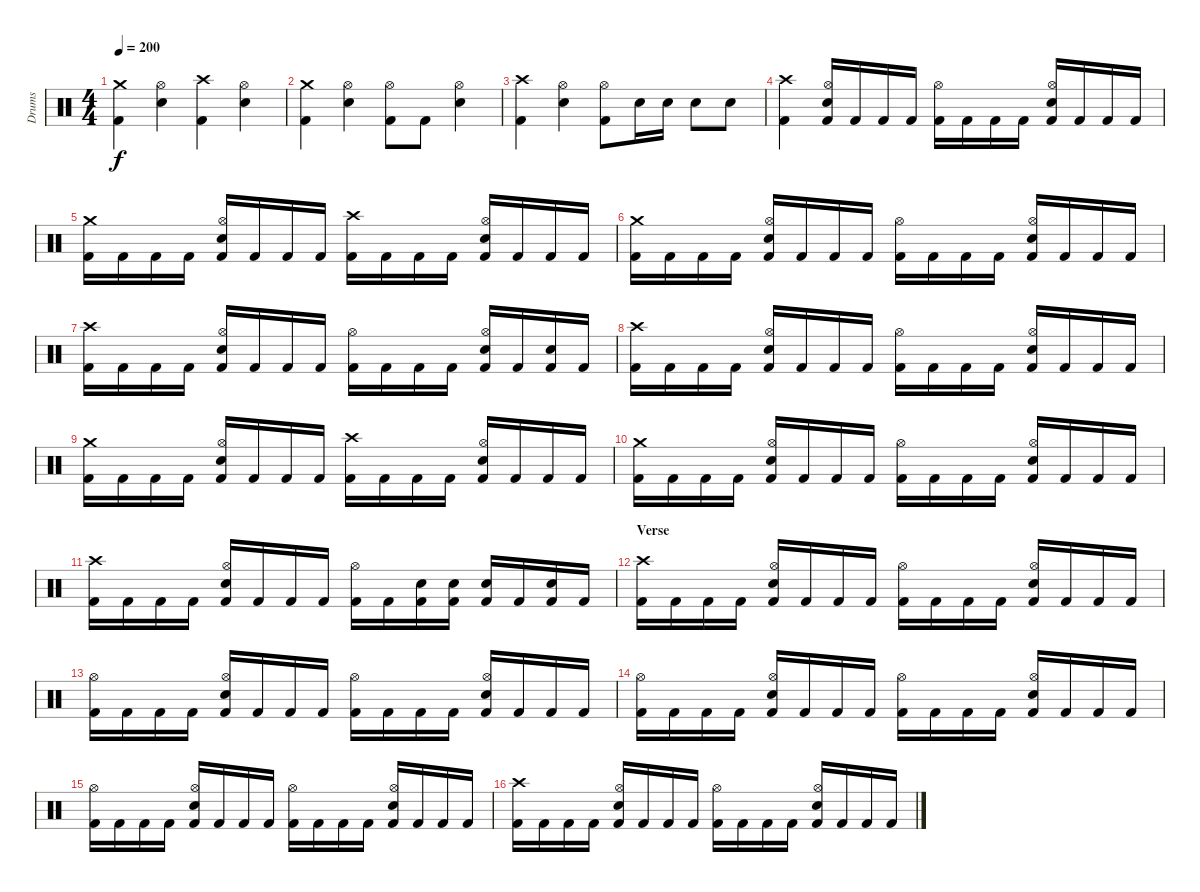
\track ("Drums" "Drums") {instrument percussion}
\staff {score}
\articulation defaults
\ts (4 4)
\tempo 200
\clef neutral
\ks c
("Crash medium (hit)" "Kick (hit) 2").4{dy f} ("Hi-Hat (open)" "Electric Snare (hit)").4 ("Crash high (hit)" "Kick (hit) 2").4 ("Hi-Hat (open)" "Electric Snare (hit)").4 |
("Crash medium (hit)" "Kick (hit) 2").4 ("Hi-Hat (open)" "Electric Snare (hit)").4 ("Hi-Hat (open)" "Kick (hit) 2").8 "Kick (hit) 2".8 ("Hi-Hat (open)" "Electric Snare (hit)").4 |
("Crash high (hit)" "Kick (hit) 2").4 ("Hi-Hat (open)" "Electric Snare (hit)").4 ("Hi-Hat (open)" "Kick (hit) 2").8 "Electric Snare (hit)".16 "Electric Snare (hit)".16 "Electric Snare (hit)".8 "Electric Snare (hit)".8 |
("Crash high (hit)" "Kick (hit) 2").4 ("Hi-Hat (open)" "Electric Snare (hit)" "Kick (hit) 2").16 "Kick (hit) 2".16 "Kick (hit) 2".16 "Kick (hit) 2".16 ("Hi-Hat (open)" "Kick (hit) 2").16 "Kick (hit) 2".16 "Kick (hit) 2".16 "Kick (hit) 2".16 ("Hi-Hat (open)" "Electric Snare (hit)" "Kick (hit) 2").16 "Kick (hit) 2".16 "Kick (hit) 2".16 "Kick (hit) 2".16 |
("Crash medium (hit)" "Kick (hit) 2").16 "Kick (hit) 2".16 "Kick (hit) 2".16 "Kick (hit) 2".16 ("Hi-Hat (open)" "Electric Snare (hit)" "Kick (hit) 2").16 "Kick (hit) 2".16 "Kick (hit) 2".16 "Kick (hit) 2".16 ("Crash high (hit)" "Kick (hit) 2").16 "Kick (hit) 2".16 "Kick (hit) 2".16 "Kick (hit) 2".16 ("Hi-Hat (open)" "Electric Snare (hit)" "Kick (hit) 2").16 "Kick (hit) 2".16 "Kick (hit) 2".16 "Kick (hit) 2".16 |
("Crash medium (hit)" "Kick (hit) 2").16 "Kick (hit) 2".16 "Kick (hit) 2".16 "Kick (hit) 2".16 ("Hi-Hat (open)" "Electric Snare (hit)" "Kick (hit) 2").16 "Kick (hit) 2".16 "Kick (hit) 2".16 "Kick (hit) 2".16 ("Hi-Hat (open)" "Kick (hit) 2").16 "Kick (hit) 2".16 "Kick (hit) 2".16 "Kick (hit) 2".16 ("Hi-Hat (open)" "Electric Snare (hit)" "Kick (hit) 2").16 "Kick (hit) 2".16 "Kick (hit) 2".16 "Kick (hit) 2".16 |
("Crash high (hit)" "Kick (hit) 2").16 "Kick (hit) 2".16 "Kick (hit) 2".16 "Kick (hit) 2".16 ("Hi-Hat (open)" "Electric Snare (hit)" "Kick (hit) 2").16 "Kick (hit) 2".16 "Kick (hit) 2".16 "Kick (hit) 2".16 ("Hi-Hat (open)" "Kick (hit) 2").16 "Kick (hit) 2".16 "Kick (hit) 2".16 "Kick (hit) 2".16 ("Hi-Hat (open)" "Electric Snare (hit)" "Kick (hit) 2").16 "Kick (hit) 2".16 ("Electric Snare (hit)" "Kick (hit) 2").16 "Kick (hit) 2".16 |
("Crash high (hit)" "Kick (hit) 2").16 "Kick (hit) 2".16 "Kick (hit) 2".16 "Kick (hit) 2".16 ("Hi-Hat (open)" "Electric Snare (hit)" "Kick (hit) 2").16 "Kick (hit) 2".16 "Kick (hit) 2".16 "Kick (hit) 2".16 ("Hi-Hat (open)" "Kick (hit) 2").16 "Kick (hit) 2".16 "Kick (hit) 2".16 "Kick (hit) 2".16 ("Hi-Hat (open)" "Electric Snare (hit)" "Kick (hit) 2").16 "Kick (hit) 2".16 "Kick (hit) 2".16 "Kick (hit) 2".16 |
("Crash medium (hit)" "Kick (hit) 2").16 "Kick (hit) 2".16 "Kick (hit) 2".16 "Kick (hit) 2".16 ("Hi-Hat (open)" "Electric Snare (hit)" "Kick (hit) 2").16 "Kick (hit) 2".16 "Kick (hit) 2".16 "Kick (hit) 2".16 ("Crash high (hit)" "Kick (hit) 2").16 "Kick (hit) 2".16 "Kick (hit) 2".16 "Kick (hit) 2".16 ("Hi-Hat (open)" "Electric Snare (hit)" "Kick (hit) 2").16 "Kick (hit) 2".16 "Kick (hit) 2".16 "Kick (hit) 2".16 |
("Crash medium (hit)" "Kick (hit) 2").16 "Kick (hit) 2".16 "Kick (hit) 2".16 "Kick (hit) 2".16 ("Hi-Hat (open)" "Electric Snare (hit)" "Kick (hit) 2").16 "Kick (hit) 2".16 "Kick (hit) 2".16 "Kick (hit) 2".16 ("Hi-Hat (open)" "Kick (hit) 2").16 "Kick (hit) 2".16 "Kick (hit) 2".16 "Kick (hit) 2".16 ("Hi-Hat (open)" "Electric Snare (hit)" "Kick (hit) 2").16 "Kick (hit) 2".16 "Kick (hit) 2".16 "Kick (hit) 2".16 |
("Crash high (hit)" "Kick (hit) 2").16 "Kick (hit) 2".16 "Kick (hit) 2".16 "Kick (hit) 2".16 ("Hi-Hat (open)" "Electric Snare (hit)" "Kick (hit) 2").16 "Kick (hit) 2".16 "Kick (hit) 2".16 "Kick (hit) 2".16 ("Hi-Hat (open)" "Kick (hit) 2").16 "Kick (hit) 2".16 ("Electric Snare (hit)" "Kick (hit) 2").16 ("Electric Snare (hit)" "Kick (hit) 2").16 ("Electric Snare (hit)" "Kick (hit) 2").16 "Kick (hit) 2".16 ("Electric Snare (hit)" "Kick (hit) 2").16 "Kick (hit) 2".16 |
\section ("" "Verse")
("Crash high (hit)" "Kick (hit) 2").16 "Kick (hit) 2".16 "Kick (hit) 2".16 "Kick (hit) 2".16 ("Hi-Hat (open)" "Electric Snare (hit)" "Kick (hit) 2").16 "Kick (hit) 2".16 "Kick (hit) 2".16 "Kick (hit) 2".16 ("Hi-Hat (open)" "Kick (hit) 2").16 "Kick (hit) 2".16 "Kick (hit) 2".16 "Kick (hit) 2".16 ("Hi-Hat (open)" "Electric Snare (hit)" "Kick (hit) 2").16 "Kick (hit) 2".16 "Kick (hit) 2".16 "Kick (hit) 2".16 |
("Hi-Hat (open)" "Kick (hit) 2").16 "Kick (hit) 2".16 "Kick (hit) 2".16 "Kick (hit) 2".16 ("Hi-Hat (open)" "Electric Snare (hit)" "Kick (hit) 2").16 "Kick (hit) 2".16 "Kick (hit) 2".16 "Kick (hit) 2".16 ("Hi-Hat (open)" "Kick (hit) 2").16 "Kick (hit) 2".16 "Kick (hit) 2".16 "Kick (hit) 2".16 ("Hi-Hat (open)" "Electric Snare (hit)" "Kick (hit) 2").16 "Kick (hit) 2".16 "Kick (hit) 2".16 "Kick (hit) 2".16 |
("Hi-Hat (open)" "Kick (hit) 2").16 "Kick (hit) 2".16 "Kick (hit) 2".16 "Kick (hit) 2".16 ("Hi-Hat (open)" "Electric Snare (hit)" "Kick (hit) 2").16 "Kick (hit) 2".16 "Kick (hit) 2".16 "Kick (hit) 2".16 ("Hi-Hat (open)" "Kick (hit) 2").16 "Kick (hit) 2".16 "Kick (hit) 2".16 "Kick (hit) 2".16 ("Hi-Hat (open)" "Electric Snare (hit)" "Kick (hit) 2").16 "Kick (hit) 2".16 "Kick (hit) 2".16 "Kick (hit) 2".16 |
("Hi-Hat (open)" "Kick (hit) 2").16 "Kick (hit) 2".16 "Kick (hit) 2".16 "Kick (hit) 2".16 ("Hi-Hat (open)" "Electric Snare (hit)" "Kick (hit) 2").16 "Kick (hit) 2".16 "Kick (hit) 2".16 "Kick (hit) 2".16 ("Hi-Hat (open)" "Kick (hit) 2").16 "Kick (hit) 2".16 "Kick (hit) 2".16 "Kick (hit) 2".16 ("Hi-Hat (open)" "Electric Snare (hit)" "Kick (hit) 2").16 "Kick (hit) 2".16 "Kick (hit) 2".16 "Kick (hit) 2".16 |
("Crash high (hit)" "Kick (hit) 2").16 "Kick (hit) 2".16 "Kick (hit) 2".16 "Kick (hit) 2".16 ("Hi-Hat (open)" "Electric Snare (hit)" "Kick (hit) 2").16 "Kick (hit) 2".16 "Kick (hit) 2".16 "Kick (hit) 2".16 ("Hi-Hat (open)" "Kick (hit) 2").16 "Kick (hit) 2".16 "Kick (hit) 2".16 "Kick (hit) 2".16 ("Hi-Hat (open)" "Electric Snare (hit)" "Kick (hit) 2").16 "Kick (hit) 2".16 "Kick (hit) 2".16 "Kick (hit) 2".16
